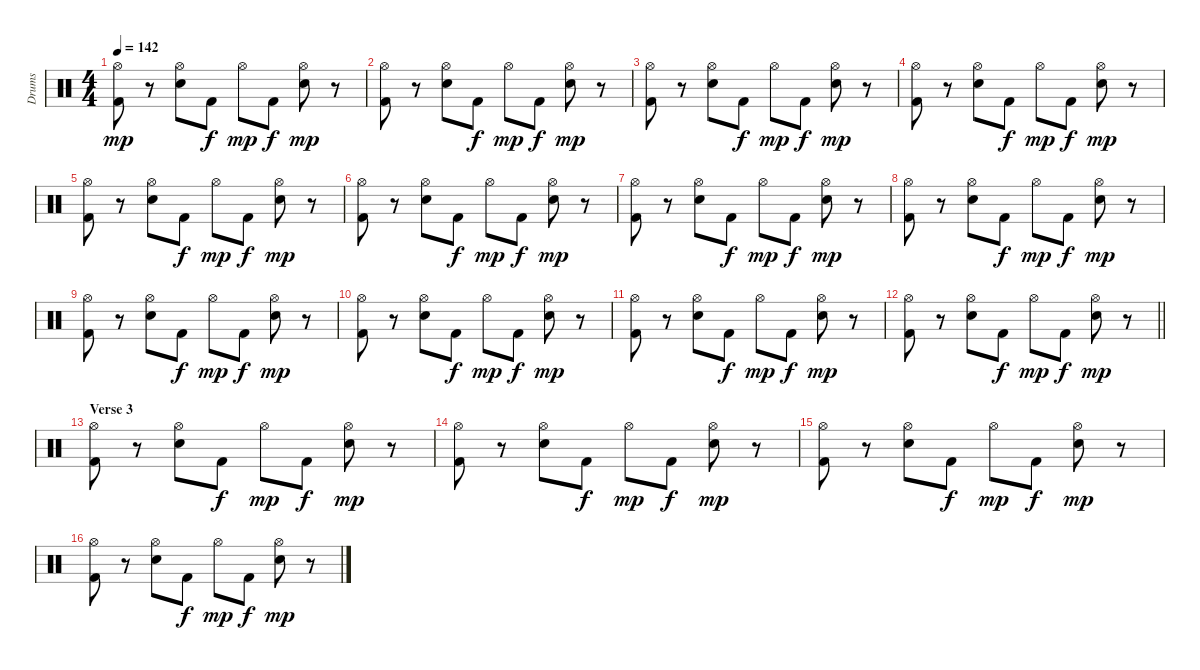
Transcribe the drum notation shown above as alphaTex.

\track ("Drums" "Drums") {instrument percussion}
\staff {score}
\articulation defaults
\ts (4 4)
\tempo 142
\clef neutral
\ks c
("Hi-Hat (open)" "Kick (hit) 2").8{dy mp} r.8 ("Hi-Hat (open)" "Snare (hit) 2").8 "Kick (hit) 2".8{dy f} "Hi-Hat (open)".8{dy mp} "Kick (hit) 2".8{dy f} ("Hi-Hat (open)" "Snare (hit) 2").8{dy mp} r.8 |
("Hi-Hat (open)" "Kick (hit) 2").8 r.8 ("Hi-Hat (open)" "Snare (hit) 2").8 "Kick (hit) 2".8{dy f} "Hi-Hat (open)".8{dy mp} "Kick (hit) 2".8{dy f} ("Hi-Hat (open)" "Snare (hit) 2").8{dy mp} r.8 |
("Hi-Hat (open)" "Kick (hit) 2").8 r.8 ("Hi-Hat (open)" "Snare (hit) 2").8 "Kick (hit) 2".8{dy f} "Hi-Hat (open)".8{dy mp} "Kick (hit) 2".8{dy f} ("Hi-Hat (open)" "Snare (hit) 2").8{dy mp} r.8 |
("Hi-Hat (open)" "Kick (hit) 2").8 r.8 ("Hi-Hat (open)" "Snare (hit) 2").8 "Kick (hit) 2".8{dy f} "Hi-Hat (open)".8{dy mp} "Kick (hit) 2".8{dy f} ("Hi-Hat (open)" "Snare (hit) 2").8{dy mp} r.8 |
("Hi-Hat (open)" "Kick (hit) 2").8 r.8 ("Hi-Hat (open)" "Snare (hit) 2").8 "Kick (hit) 2".8{dy f} "Hi-Hat (open)".8{dy mp} "Kick (hit) 2".8{dy f} ("Hi-Hat (open)" "Snare (hit) 2").8{dy mp} r.8 |
("Hi-Hat (open)" "Kick (hit) 2").8 r.8 ("Hi-Hat (open)" "Snare (hit) 2").8 "Kick (hit) 2".8{dy f} "Hi-Hat (open)".8{dy mp} "Kick (hit) 2".8{dy f} ("Hi-Hat (open)" "Snare (hit) 2").8{dy mp} r.8 |
("Hi-Hat (open)" "Kick (hit) 2").8 r.8 ("Hi-Hat (open)" "Snare (hit) 2").8 "Kick (hit) 2".8{dy f} "Hi-Hat (open)".8{dy mp} "Kick (hit) 2".8{dy f} ("Hi-Hat (open)" "Snare (hit) 2").8{dy mp} r.8 |
("Hi-Hat (open)" "Kick (hit) 2").8 r.8 ("Hi-Hat (open)" "Snare (hit) 2").8 "Kick (hit) 2".8{dy f} "Hi-Hat (open)".8{dy mp} "Kick (hit) 2".8{dy f} ("Hi-Hat (open)" "Snare (hit) 2").8{dy mp} r.8 |
("Hi-Hat (open)" "Kick (hit) 2").8 r.8 ("Hi-Hat (open)" "Snare (hit) 2").8 "Kick (hit) 2".8{dy f} "Hi-Hat (open)".8{dy mp} "Kick (hit) 2".8{dy f} ("Hi-Hat (open)" "Snare (hit) 2").8{dy mp} r.8 |
("Hi-Hat (open)" "Kick (hit) 2").8 r.8 ("Hi-Hat (open)" "Snare (hit) 2").8 "Kick (hit) 2".8{dy f} "Hi-Hat (open)".8{dy mp} "Kick (hit) 2".8{dy f} ("Hi-Hat (open)" "Snare (hit) 2").8{dy mp} r.8 |
("Hi-Hat (open)" "Kick (hit) 2").8 r.8 ("Hi-Hat (open)" "Snare (hit) 2").8 "Kick (hit) 2".8{dy f} "Hi-Hat (open)".8{dy mp} "Kick (hit) 2".8{dy f} ("Hi-Hat (open)" "Snare (hit) 2").8{dy mp} r.8 |
\barLineRight lightlight
("Hi-Hat (open)" "Kick (hit) 2").8 r.8 ("Hi-Hat (open)" "Snare (hit) 2").8 "Kick (hit) 2".8{dy f} "Hi-Hat (open)".8{dy mp} "Kick (hit) 2".8{dy f} ("Hi-Hat (open)" "Snare (hit) 2").8{dy mp} r.8 |
\section ("" "Verse 3")
("Hi-Hat (open)" "Kick (hit) 2").8 r.8 ("Hi-Hat (open)" "Snare (hit) 2").8 "Kick (hit) 2".8{dy f} "Hi-Hat (open)".8{dy mp} "Kick (hit) 2".8{dy f} ("Hi-Hat (open)" "Snare (hit) 2").8{dy mp} r.8 |
("Hi-Hat (open)" "Kick (hit) 2").8 r.8 ("Hi-Hat (open)" "Snare (hit) 2").8 "Kick (hit) 2".8{dy f} "Hi-Hat (open)".8{dy mp} "Kick (hit) 2".8{dy f} ("Hi-Hat (open)" "Snare (hit) 2").8{dy mp} r.8 |
("Hi-Hat (open)" "Kick (hit) 2").8 r.8 ("Hi-Hat (open)" "Snare (hit) 2").8 "Kick (hit) 2".8{dy f} "Hi-Hat (open)".8{dy mp} "Kick (hit) 2".8{dy f} ("Hi-Hat (open)" "Snare (hit) 2").8{dy mp} r.8 |
("Hi-Hat (open)" "Kick (hit) 2").8 r.8 ("Hi-Hat (open)" "Snare (hit) 2").8 "Kick (hit) 2".8{dy f} "Hi-Hat (open)".8{dy mp} "Kick (hit) 2".8{dy f} ("Hi-Hat (open)" "Snare (hit) 2").8{dy mp} r.8
